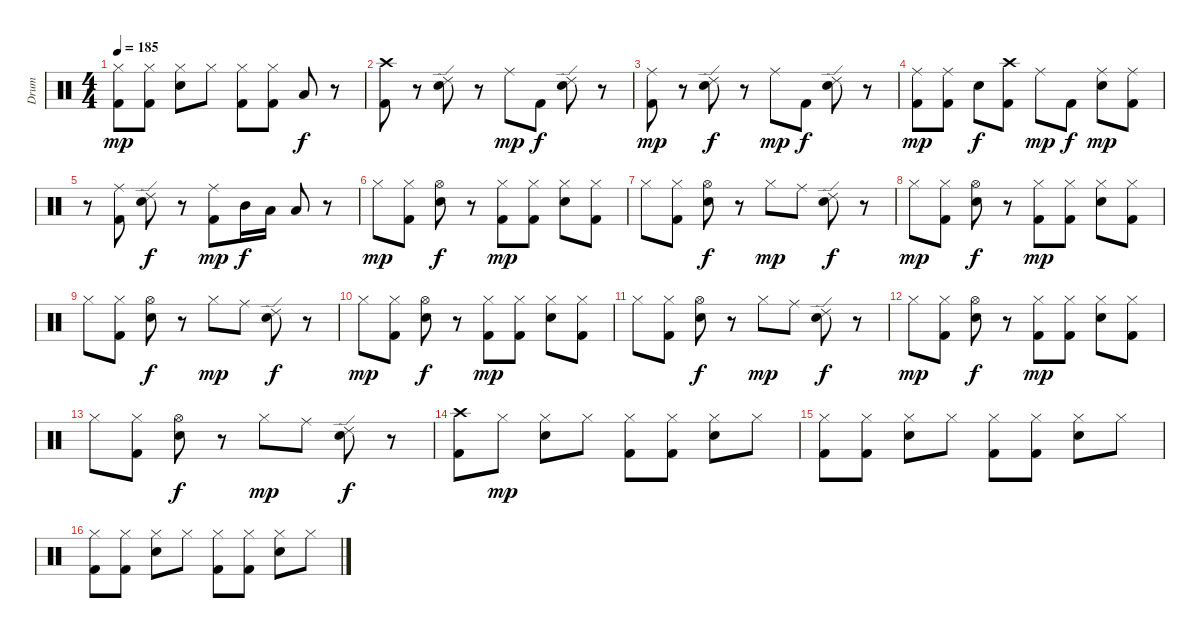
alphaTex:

\track ("Drum" "Drum") {instrument percussion}
\staff {score}
\articulation defaults
\ts (4 4)
\tempo 185
\clef neutral
\ks c
("Hi-Hat (closed)" "Kick (hit) 2").8{dy mp} ("Hi-Hat (closed)" "Kick (hit) 2").8 ("Hi-Hat (closed)" "Electric Snare (hit)").8 "Hi-Hat (closed)".8 ("Hi-Hat (closed)" "Kick (hit) 2").8 ("Hi-Hat (closed)" "Kick (hit) 2").8 "Low Tom (hit)".8{dy f} r.8 |
("Crash high (hit)" "Kick (hit) 2").8 r.8 ("Ride (edge) 2" "Electric Snare (hit)").8 r.8 "Ride (middle)".8{dy mp} "Kick (hit) 2".8{dy f} ("Ride (edge) 2" "Electric Snare (hit)").8 r.8 |
("Ride (middle)" "Kick (hit) 2").8{dy mp} r.8 ("Ride (edge) 2" "Electric Snare (hit)").8{dy f} r.8 "Ride (middle)".8{dy mp} "Kick (hit) 2".8{dy f} ("Ride (edge) 2" "Electric Snare (hit)").8 r.8 |
("Ride (middle)" "Kick (hit) 2").8{dy mp} ("Ride (middle)" "Kick (hit) 2").8 "Electric Snare (hit)".8{dy f} ("Crash high (hit)" "Kick (hit) 2").8 "Ride (middle)".8{dy mp} "Kick (hit) 2".8{dy f} ("Electric Snare (hit)" "Ride (middle)").8{dy mp} ("Kick (hit) 2" "Ride (middle)").8 |
r.8 ("Ride (middle)" "Kick (hit) 2").8 ("Ride (edge) 2" "Electric Snare (hit)").8{dy f} r.8 ("Ride (middle)" "Kick (hit) 2").8{dy mp} "Mid Tom (hit)".16{dy f} "Low Tom (hit)".16 "Low Tom (hit)".8 r.8 |
"Hi-Hat (closed)".8{dy mp} ("Hi-Hat (closed)" "Kick (hit) 2").8 ("Electric Snare (hit)" "Hi-Hat (open)").8{dy f} r.8 ("Hi-Hat (closed)" "Kick (hit) 2").8{dy mp} ("Hi-Hat (closed)" "Kick (hit) 2").8 ("Hi-Hat (closed)" "Electric Snare (hit)").8 ("Hi-Hat (closed)" "Kick (hit) 2").8 |
"Hi-Hat (closed)".8 ("Hi-Hat (closed)" "Kick (hit) 2").8 ("Electric Snare (hit)" "Hi-Hat (open)").8{dy f} r.8 "Hi-Hat (closed)".8{dy mp} "Ride (middle)".8 ("Ride (edge) 2" "Electric Snare (hit)").8{dy f} r.8 |
"Hi-Hat (closed)".8{dy mp} ("Hi-Hat (closed)" "Kick (hit) 2").8 ("Electric Snare (hit)" "Hi-Hat (open)").8{dy f} r.8 ("Hi-Hat (closed)" "Kick (hit) 2").8{dy mp} ("Hi-Hat (closed)" "Kick (hit) 2").8 ("Hi-Hat (closed)" "Electric Snare (hit)").8 ("Hi-Hat (closed)" "Kick (hit) 2").8 |
"Hi-Hat (closed)".8 ("Hi-Hat (closed)" "Kick (hit) 2").8 ("Electric Snare (hit)" "Hi-Hat (open)").8{dy f} r.8 "Hi-Hat (closed)".8{dy mp} "Ride (middle)".8 ("Ride (edge) 2" "Electric Snare (hit)").8{dy f} r.8 |
"Hi-Hat (closed)".8{dy mp} ("Hi-Hat (closed)" "Kick (hit) 2").8 ("Electric Snare (hit)" "Hi-Hat (open)").8{dy f} r.8 ("Hi-Hat (closed)" "Kick (hit) 2").8{dy mp} ("Hi-Hat (closed)" "Kick (hit) 2").8 ("Hi-Hat (closed)" "Electric Snare (hit)").8 ("Hi-Hat (closed)" "Kick (hit) 2").8 |
"Hi-Hat (closed)".8 ("Hi-Hat (closed)" "Kick (hit) 2").8 ("Electric Snare (hit)" "Hi-Hat (open)").8{dy f} r.8 "Hi-Hat (closed)".8{dy mp} "Ride (middle)".8 ("Ride (edge) 2" "Electric Snare (hit)").8{dy f} r.8 |
"Hi-Hat (closed)".8{dy mp} ("Hi-Hat (closed)" "Kick (hit) 2").8 ("Electric Snare (hit)" "Hi-Hat (open)").8{dy f} r.8 ("Hi-Hat (closed)" "Kick (hit) 2").8{dy mp} ("Hi-Hat (closed)" "Kick (hit) 2").8 ("Hi-Hat (closed)" "Electric Snare (hit)").8 ("Hi-Hat (closed)" "Kick (hit) 2").8 |
"Hi-Hat (closed)".8 ("Hi-Hat (closed)" "Kick (hit) 2").8 ("Electric Snare (hit)" "Hi-Hat (open)").8{dy f} r.8 "Hi-Hat (closed)".8{dy mp} "Ride (middle)".8 ("Ride (edge) 2" "Electric Snare (hit)").8{dy f} r.8 |
("Crash high (hit)" "Kick (hit) 2").8 "Hi-Hat (closed)".8{dy mp} ("Hi-Hat (closed)" "Electric Snare (hit)").8 "Hi-Hat (closed)".8 ("Hi-Hat (closed)" "Kick (hit) 2").8 ("Hi-Hat (closed)" "Kick (hit) 2").8 ("Hi-Hat (closed)" "Electric Snare (hit)").8 "Hi-Hat (closed)".8 |
("Hi-Hat (closed)" "Kick (hit) 2").8 ("Hi-Hat (closed)" "Kick (hit) 2").8 ("Hi-Hat (closed)" "Electric Snare (hit)").8 "Hi-Hat (closed)".8 ("Hi-Hat (closed)" "Kick (hit) 2").8 ("Hi-Hat (closed)" "Kick (hit) 2").8 ("Hi-Hat (closed)" "Electric Snare (hit)").8 "Hi-Hat (closed)".8 |
("Hi-Hat (closed)" "Kick (hit) 2").8 ("Hi-Hat (closed)" "Kick (hit) 2").8 ("Hi-Hat (closed)" "Electric Snare (hit)").8 "Hi-Hat (closed)".8 ("Hi-Hat (closed)" "Kick (hit) 2").8 ("Hi-Hat (closed)" "Kick (hit) 2").8 ("Hi-Hat (closed)" "Electric Snare (hit)").8 "Hi-Hat (closed)".8
